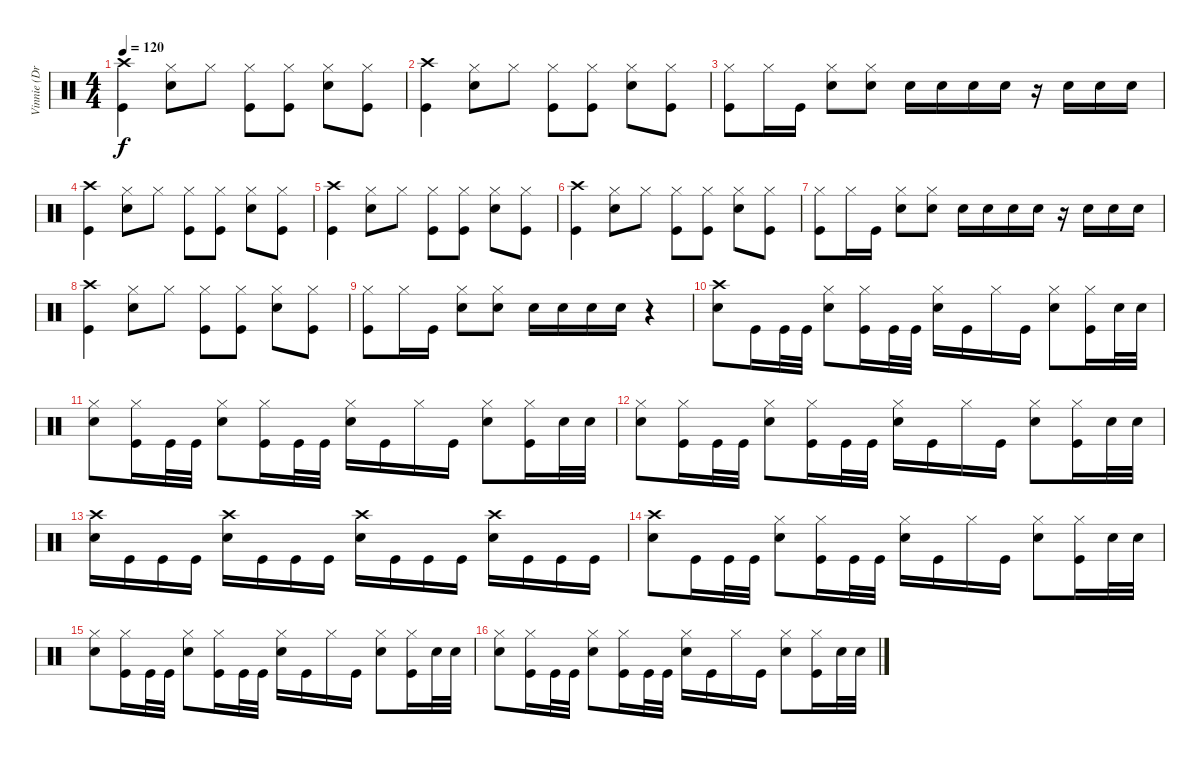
\track ("Vinnie (Drums)" "Vinnie (Dr") {instrument percussion}
\staff {score}
\articulation defaults
\ts (4 4)
\tempo 120
\clef neutral
\ks c
("Crash high (hit)" "Kick (hit)").4{dy f} ("Hi-Hat (closed)" "Snare (hit) 2").8 "Hi-Hat (closed)".8 ("Hi-Hat (closed)" "Kick (hit)").8 ("Hi-Hat (closed)" "Kick (hit)").8 ("Hi-Hat (closed)" "Snare (hit) 2").8 ("Hi-Hat (closed)" "Kick (hit)").8 |
("Crash high (hit)" "Kick (hit)").4 ("Hi-Hat (closed)" "Snare (hit) 2").8 "Hi-Hat (closed)".8 ("Hi-Hat (closed)" "Kick (hit)").8 ("Hi-Hat (closed)" "Kick (hit)").8 ("Hi-Hat (closed)" "Snare (hit) 2").8 ("Hi-Hat (closed)" "Kick (hit)").8 |
("Hi-Hat (closed)" "Kick (hit)").8 "Hi-Hat (closed)".16 "Kick (hit)".16 ("Hi-Hat (closed)" "Snare (hit) 2").8 ("Hi-Hat (closed)" "Snare (hit) 2").8 "Snare (hit) 2".16 "Snare (hit) 2".16 "Snare (hit) 2".16 "Snare (hit) 2".16 r.16 "Snare (hit) 2".16 "Snare (hit) 2".16 "Snare (hit) 2".16 |
("Crash high (hit)" "Kick (hit)").4 ("Hi-Hat (closed)" "Snare (hit) 2").8 "Hi-Hat (closed)".8 ("Hi-Hat (closed)" "Kick (hit)").8 ("Hi-Hat (closed)" "Kick (hit)").8 ("Hi-Hat (closed)" "Snare (hit) 2").8 ("Hi-Hat (closed)" "Kick (hit)").8 |
("Crash high (hit)" "Kick (hit)").4 ("Hi-Hat (closed)" "Snare (hit) 2").8 "Hi-Hat (closed)".8 ("Hi-Hat (closed)" "Kick (hit)").8 ("Hi-Hat (closed)" "Kick (hit)").8 ("Hi-Hat (closed)" "Snare (hit) 2").8 ("Hi-Hat (closed)" "Kick (hit)").8 |
("Crash high (hit)" "Kick (hit)").4 ("Hi-Hat (closed)" "Snare (hit) 2").8 "Hi-Hat (closed)".8 ("Hi-Hat (closed)" "Kick (hit)").8 ("Hi-Hat (closed)" "Kick (hit)").8 ("Hi-Hat (closed)" "Snare (hit) 2").8 ("Hi-Hat (closed)" "Kick (hit)").8 |
("Hi-Hat (closed)" "Kick (hit)").8 "Hi-Hat (closed)".16 "Kick (hit)".16 ("Hi-Hat (closed)" "Snare (hit) 2").8 ("Hi-Hat (closed)" "Snare (hit) 2").8 "Snare (hit) 2".16 "Snare (hit) 2".16 "Snare (hit) 2".16 "Snare (hit) 2".16 r.16 "Snare (hit) 2".16 "Snare (hit) 2".16 "Snare (hit) 2".16 |
("Crash high (hit)" "Kick (hit)").4 ("Hi-Hat (closed)" "Snare (hit) 2").8 "Hi-Hat (closed)".8 ("Hi-Hat (closed)" "Kick (hit)").8 ("Hi-Hat (closed)" "Kick (hit)").8 ("Hi-Hat (closed)" "Snare (hit) 2").8 ("Hi-Hat (closed)" "Kick (hit)").8 |
("Hi-Hat (closed)" "Kick (hit)").8 "Hi-Hat (closed)".16 "Kick (hit)".16 ("Hi-Hat (closed)" "Snare (hit) 2").8 ("Hi-Hat (closed)" "Snare (hit) 2").8 "Snare (hit) 2".16 "Snare (hit) 2".16 "Snare (hit) 2".16 "Snare (hit) 2".16 r.4 |
("Crash high (hit)" "Snare (hit) 2").8 "Kick (hit)".16 "Kick (hit)".32 "Kick (hit)".32 ("Hi-Hat (closed)" "Snare (hit) 2").8 ("Hi-Hat (closed)" "Kick (hit)").16 "Kick (hit)".32 "Kick (hit)".32 ("Hi-Hat (closed)" "Snare (hit) 2").16 "Kick (hit)".16 "Hi-Hat (closed)".16 "Kick (hit)".16 ("Hi-Hat (closed)" "Snare (hit) 2").8 ("Hi-Hat (closed)" "Kick (hit)").16 "Snare (hit) 2".32 "Snare (hit) 2".32 |
("Hi-Hat (closed)" "Snare (hit) 2").8 ("Hi-Hat (closed)" "Kick (hit)").16 "Kick (hit)".32 "Kick (hit)".32 ("Hi-Hat (closed)" "Snare (hit) 2").8 ("Hi-Hat (closed)" "Kick (hit)").16 "Kick (hit)".32 "Kick (hit)".32 ("Hi-Hat (closed)" "Snare (hit) 2").16 "Kick (hit)".16 "Hi-Hat (closed)".16 "Kick (hit)".16 ("Hi-Hat (closed)" "Snare (hit) 2").8 ("Hi-Hat (closed)" "Kick (hit)").16 "Snare (hit) 2".32 "Snare (hit) 2".32 |
("Hi-Hat (closed)" "Snare (hit) 2").8 ("Hi-Hat (closed)" "Kick (hit)").16 "Kick (hit)".32 "Kick (hit)".32 ("Hi-Hat (closed)" "Snare (hit) 2").8 ("Hi-Hat (closed)" "Kick (hit)").16 "Kick (hit)".32 "Kick (hit)".32 ("Hi-Hat (closed)" "Snare (hit) 2").16 "Kick (hit)".16 "Hi-Hat (closed)".16 "Kick (hit)".16 ("Hi-Hat (closed)" "Snare (hit) 2").8 ("Hi-Hat (closed)" "Kick (hit)").16 "Snare (hit) 2".32 "Snare (hit) 2".32 |
("Crash high (hit)" "Snare (hit) 2").16 "Kick (hit)".16 "Kick (hit)".16 "Kick (hit)".16 ("Crash high (hit)" "Snare (hit) 2").16 "Kick (hit)".16 "Kick (hit)".16 "Kick (hit)".16 ("Crash high (hit)" "Snare (hit) 2").16 "Kick (hit)".16 "Kick (hit)".16 "Kick (hit)".16 ("Crash high (hit)" "Snare (hit) 2").16 "Kick (hit)".16 "Kick (hit)".16 "Kick (hit)".16 |
("Crash high (hit)" "Snare (hit) 2").8 "Kick (hit)".16 "Kick (hit)".32 "Kick (hit)".32 ("Hi-Hat (closed)" "Snare (hit) 2").8 ("Hi-Hat (closed)" "Kick (hit)").16 "Kick (hit)".32 "Kick (hit)".32 ("Hi-Hat (closed)" "Snare (hit) 2").16 "Kick (hit)".16 "Hi-Hat (closed)".16 "Kick (hit)".16 ("Hi-Hat (closed)" "Snare (hit) 2").8 ("Hi-Hat (closed)" "Kick (hit)").16 "Snare (hit) 2".32 "Snare (hit) 2".32 |
("Hi-Hat (closed)" "Snare (hit) 2").8 ("Hi-Hat (closed)" "Kick (hit)").16 "Kick (hit)".32 "Kick (hit)".32 ("Hi-Hat (closed)" "Snare (hit) 2").8 ("Hi-Hat (closed)" "Kick (hit)").16 "Kick (hit)".32 "Kick (hit)".32 ("Hi-Hat (closed)" "Snare (hit) 2").16 "Kick (hit)".16 "Hi-Hat (closed)".16 "Kick (hit)".16 ("Hi-Hat (closed)" "Snare (hit) 2").8 ("Hi-Hat (closed)" "Kick (hit)").16 "Snare (hit) 2".32 "Snare (hit) 2".32 |
("Hi-Hat (closed)" "Snare (hit) 2").8 ("Hi-Hat (closed)" "Kick (hit)").16 "Kick (hit)".32 "Kick (hit)".32 ("Hi-Hat (closed)" "Snare (hit) 2").8 ("Hi-Hat (closed)" "Kick (hit)").16 "Kick (hit)".32 "Kick (hit)".32 ("Hi-Hat (closed)" "Snare (hit) 2").16 "Kick (hit)".16 "Hi-Hat (closed)".16 "Kick (hit)".16 ("Hi-Hat (closed)" "Snare (hit) 2").8 ("Hi-Hat (closed)" "Kick (hit)").16 "Snare (hit) 2".32 "Snare (hit) 2".32
